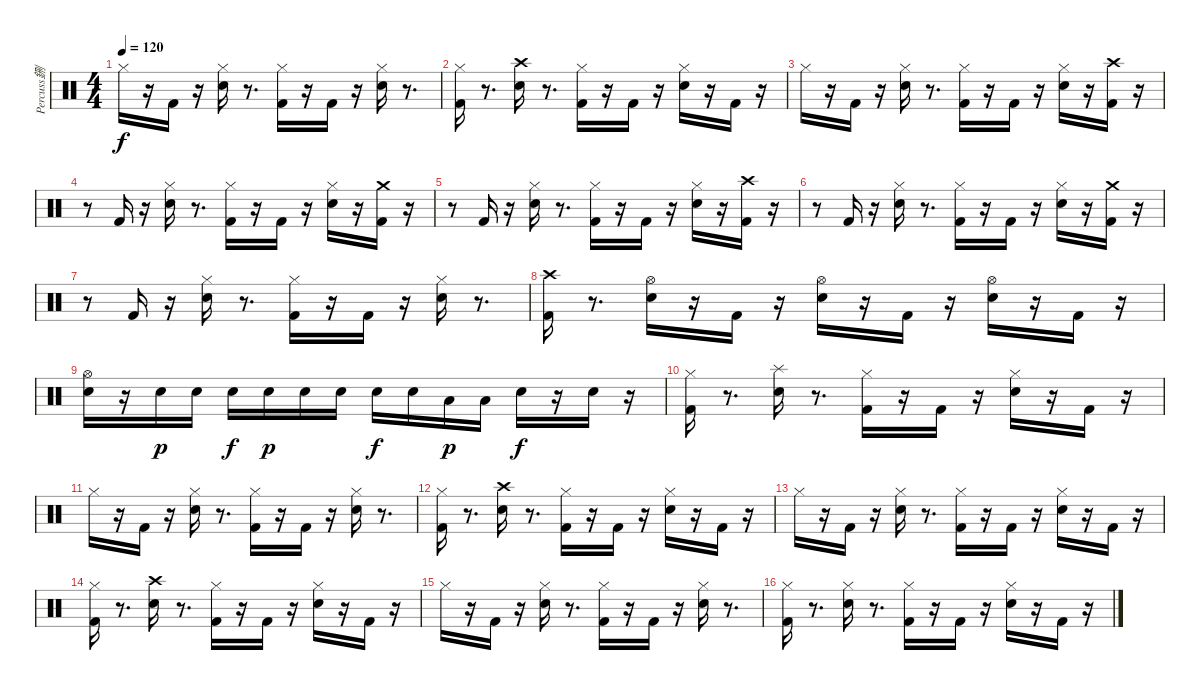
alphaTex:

\track ("Percuss鉶" "Percuss鉶") {instrument percussion}
\staff {score}
\articulation defaults
\ts (4 4)
\tempo 120
\clef neutral
\ks c "Hi-Hat (closed)".16{dy f}
r.16 "Kick (hit) 2".16 r.16 ("Hi-Hat (closed)" "Snare (hit) 2").16 r.8{d} ("Hi-Hat (closed)" "Kick (hit) 2").16 r.16 "Kick (hit) 2".16 r.16 ("Hi-Hat (closed)" "Snare (hit) 2").16 r.8{d} |
("Hi-Hat (closed)" "Kick (hit) 2").16 r.8{d} ("Crash high (hit)" "Snare (hit) 2").16 r.8{d} ("Hi-Hat (closed)" "Kick (hit) 2").16 r.16 "Kick (hit) 2".16 r.16 ("Hi-Hat (closed)" "Snare (hit) 2").16 r.16 "Kick (hit) 2".16 r.16 |
"Hi-Hat (closed)".16 r.16 "Kick (hit) 2".16 r.16 ("Hi-Hat (closed)" "Snare (hit) 2").16 r.8{d} ("Hi-Hat (closed)" "Kick (hit) 2").16 r.16 "Kick (hit) 2".16 r.16 ("Hi-Hat (closed)" "Snare (hit) 2").16 r.16 ("Kick (hit) 2" "Crash high (hit)").16 r.16 |
r.8 "Kick (hit) 2".16 r.16 ("Hi-Hat (closed)" "Snare (hit) 2").16 r.8{d} ("Hi-Hat (closed)" "Kick (hit) 2").16 r.16 "Kick (hit) 2".16 r.16 ("Hi-Hat (closed)" "Snare (hit) 2").16 r.16 ("Kick (hit) 2" "Crash medium (hit)").16 r.16 |
r.8 "Kick (hit) 2".16 r.16 ("Hi-Hat (closed)" "Snare (hit) 2").16 r.8{d} ("Hi-Hat (closed)" "Kick (hit) 2").16 r.16 "Kick (hit) 2".16 r.16 ("Hi-Hat (closed)" "Snare (hit) 2").16 r.16 ("Kick (hit) 2" "Crash high (hit)").16 r.16 |
r.8 "Kick (hit) 2".16 r.16 ("Hi-Hat (closed)" "Snare (hit) 2").16 r.8{d} ("Hi-Hat (closed)" "Kick (hit) 2").16 r.16 "Kick (hit) 2".16 r.16 ("Hi-Hat (closed)" "Snare (hit) 2").16 r.16 ("Crash medium (hit)" "Kick (hit) 2").16 r.16 |
r.8 "Kick (hit) 2".16 r.16 ("Hi-Hat (closed)" "Snare (hit) 2").16 r.8{d} ("Hi-Hat (closed)" "Kick (hit) 2").16 r.16 "Kick (hit) 2".16 r.16 ("Hi-Hat (closed)" "Snare (hit) 2").16 r.8{d} |
("Crash high (hit)" "Kick (hit) 2").16 r.8{d} ("Hi-Hat (open)" "Snare (hit) 2").16 r.16 "Kick (hit) 2".16 r.16 ("Snare (hit) 2" "Hi-Hat (open)").16 r.16 "Kick (hit) 2".16 r.16 ("Hi-Hat (open)" "Snare (hit) 2").16 r.16 "Kick (hit) 2".16 r.16 |
("Snare (hit) 2" "Hi-Hat (open)").16 r.16 "Snare (hit) 2".16{dy p} "Snare (hit) 2".16 "Snare (hit) 2".16{dy f} "Snare (hit) 2".16{dy p} "Snare (hit) 2".16 "Snare (hit) 2".16 "Snare (hit) 2".16{dy f} "Snare (hit) 2".16 "Low Tom (hit)".16{dy p} "Low Tom (hit)".16 "Snare (hit) 2".16{dy f} r.16 "Snare (hit) 2".16 r.16 |
("Hi-Hat (closed)" "Kick (hit) 2").16 r.8{d} ("Splash (hit)" "Snare (hit) 2").16 r.8{d} ("Hi-Hat (closed)" "Kick (hit) 2").16 r.16 "Kick (hit) 2".16 r.16 ("Hi-Hat (closed)" "Snare (hit) 2").16 r.16 "Kick (hit) 2".16 r.16 |
"Hi-Hat (closed)".16 r.16 "Kick (hit) 2".16 r.16 ("Hi-Hat (closed)" "Snare (hit) 2").16 r.8{d} ("Hi-Hat (closed)" "Kick (hit) 2").16 r.16 "Kick (hit) 2".16 r.16 ("Hi-Hat (closed)" "Snare (hit) 2").16 r.8{d} |
("Hi-Hat (closed)" "Kick (hit) 2").16 r.8{d} ("Crash high (hit)" "Snare (hit) 2").16 r.8{d} ("Hi-Hat (closed)" "Kick (hit) 2").16 r.16 "Kick (hit) 2".16 r.16 ("Hi-Hat (closed)" "Snare (hit) 2").16 r.16 "Kick (hit) 2".16 r.16 |
"Hi-Hat (closed)".16 r.16 "Kick (hit) 2".16 r.16 ("Hi-Hat (closed)" "Snare (hit) 2").16 r.8{d} ("Hi-Hat (closed)" "Kick (hit) 2").16 r.16 "Kick (hit) 2".16 r.16 ("Hi-Hat (closed)" "Snare (hit) 2").16 r.16 "Kick (hit) 2".16 r.16 |
("Hi-Hat (closed)" "Kick (hit) 2").16 r.8{d} ("Crash high (hit)" "Snare (hit) 2").16 r.8{d} ("Hi-Hat (closed)" "Kick (hit) 2").16 r.16 "Kick (hit) 2".16 r.16 ("Hi-Hat (closed)" "Snare (hit) 2").16 r.16 "Kick (hit) 2".16 r.16 |
"Hi-Hat (closed)".16 r.16 "Kick (hit) 2".16 r.16 ("Hi-Hat (closed)" "Snare (hit) 2").16 r.8{d} ("Hi-Hat (closed)" "Kick (hit) 2").16 r.16 "Kick (hit) 2".16 r.16 ("Hi-Hat (closed)" "Snare (hit) 2").16 r.8{d} |
("Hi-Hat (closed)" "Kick (hit) 2").16 r.8{d} ("Hi-Hat (closed)" "Snare (hit) 2").16 r.8{d} ("Hi-Hat (closed)" "Kick (hit) 2").16 r.16 "Kick (hit) 2".16 r.16 ("Hi-Hat (closed)" "Snare (hit) 2").16 r.16 "Kick (hit) 2".16 r.16
